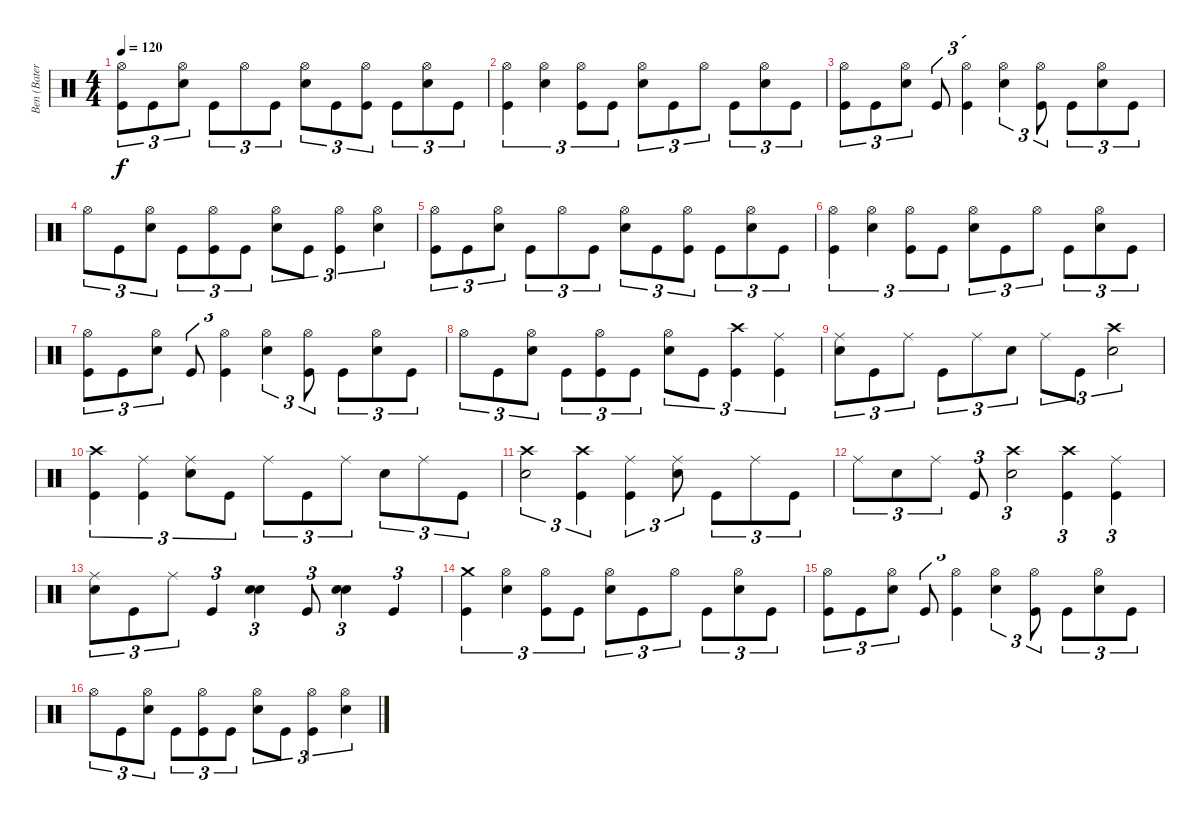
\track ("Ben (Bateria)" "Ben (Bater") {instrument percussion}
\staff {score}
\articulation defaults
\ts (4 4)
\tempo 120
\clef neutral
\ks c
("Kick (hit)" "Hi-Hat (open)").8{tu (3 2) dy f} "Kick (hit)".8{tu (3 2)} ("Snare (hit) 2" "Hi-Hat (open)").8{tu (3 2)} "Kick (hit)".8{tu (3 2)} "Hi-Hat (open)".8{tu (3 2)} "Kick (hit)".8{tu (3 2)} ("Snare (hit) 2" "Hi-Hat (open)").8{tu (3 2)} "Kick (hit)".8{tu (3 2)} ("Kick (hit)" "Hi-Hat (open)").8{tu (3 2)} "Kick (hit)".8{tu (3 2)} ("Snare (hit) 2" "Hi-Hat (open)").8{tu (3 2)} "Kick (hit)".8{tu (3 2)} |
("Kick (hit)" "Hi-Hat (open)").4{tu (3 2)} ("Snare (hit) 2" "Hi-Hat (open)").4{tu (3 2)} ("Kick (hit)" "Hi-Hat (open)").8{tu (3 2)} "Kick (hit)".8{tu (3 2)} ("Snare (hit) 2" "Hi-Hat (open)").8{tu (3 2)} "Kick (hit)".8{tu (3 2)} "Hi-Hat (open)".8{tu (3 2)} "Kick (hit)".8{tu (3 2)} ("Snare (hit) 2" "Hi-Hat (open)").8{tu (3 2)} "Kick (hit)".8{tu (3 2)} |
("Kick (hit)" "Hi-Hat (open)").8{tu (3 2)} "Kick (hit)".8{tu (3 2)} ("Snare (hit) 2" "Hi-Hat (open)").8{tu (3 2)} "Kick (hit)".8{tu (3 2)} ("Kick (hit)" "Hi-Hat (open)").4{tu (3 2)} ("Snare (hit) 2" "Hi-Hat (open)").4{tu (3 2)} ("Kick (hit)" "Hi-Hat (open)").8{tu (3 2)} "Kick (hit)".8{tu (3 2)} ("Snare (hit) 2" "Hi-Hat (open)").8{tu (3 2)} "Kick (hit)".8{tu (3 2)} |
"Hi-Hat (open)".8{tu (3 2)} "Kick (hit)".8{tu (3 2)} ("Snare (hit) 2" "Hi-Hat (open)").8{tu (3 2)} "Kick (hit)".8{tu (3 2)} ("Kick (hit)" "Hi-Hat (open)").8{tu (3 2)} "Kick (hit)".8{tu (3 2)} ("Snare (hit) 2" "Hi-Hat (open)").8{tu (3 2)} "Kick (hit)".8{tu (3 2)} ("Kick (hit)" "Hi-Hat (open)").4{tu (3 2)} ("Snare (hit) 2" "Hi-Hat (open)").4{tu (3 2)} |
("Kick (hit)" "Hi-Hat (open)").8{tu (3 2)} "Kick (hit)".8{tu (3 2)} ("Snare (hit) 2" "Hi-Hat (open)").8{tu (3 2)} "Kick (hit)".8{tu (3 2)} "Hi-Hat (open)".8{tu (3 2)} "Kick (hit)".8{tu (3 2)} ("Snare (hit) 2" "Hi-Hat (open)").8{tu (3 2)} "Kick (hit)".8{tu (3 2)} ("Kick (hit)" "Hi-Hat (open)").8{tu (3 2)} "Kick (hit)".8{tu (3 2)} ("Snare (hit) 2" "Hi-Hat (open)").8{tu (3 2)} "Kick (hit)".8{tu (3 2)} |
("Kick (hit)" "Hi-Hat (open)").4{tu (3 2)} ("Snare (hit) 2" "Hi-Hat (open)").4{tu (3 2)} ("Kick (hit)" "Hi-Hat (open)").8{tu (3 2)} "Kick (hit)".8{tu (3 2)} ("Snare (hit) 2" "Hi-Hat (open)").8{tu (3 2)} "Kick (hit)".8{tu (3 2)} "Hi-Hat (open)".8{tu (3 2)} "Kick (hit)".8{tu (3 2)} ("Snare (hit) 2" "Hi-Hat (open)").8{tu (3 2)} "Kick (hit)".8{tu (3 2)} |
("Kick (hit)" "Hi-Hat (open)").8{tu (3 2)} "Kick (hit)".8{tu (3 2)} ("Snare (hit) 2" "Hi-Hat (open)").8{tu (3 2)} "Kick (hit)".8{tu (3 2)} ("Kick (hit)" "Hi-Hat (open)").4{tu (3 2)} ("Snare (hit) 2" "Hi-Hat (open)").4{tu (3 2)} ("Kick (hit)" "Hi-Hat (open)").8{tu (3 2)} "Kick (hit)".8{tu (3 2)} ("Snare (hit) 2" "Hi-Hat (open)").8{tu (3 2)} "Kick (hit)".8{tu (3 2)} |
"Hi-Hat (open)".8{tu (3 2)} "Kick (hit)".8{tu (3 2)} ("Snare (hit) 2" "Hi-Hat (open)").8{tu (3 2)} "Kick (hit)".8{tu (3 2)} ("Kick (hit)" "Hi-Hat (open)").8{tu (3 2)} "Kick (hit)".8{tu (3 2)} ("Snare (hit) 2" "Hi-Hat (open)").8{tu (3 2)} "Kick (hit)".8{tu (3 2)} ("Kick (hit)" "Crash high (hit)").4{tu (3 2)} ("Kick (hit)" "Ride (middle)").4{tu (3 2)} |
("Snare (hit) 2" "Ride (middle)").8{tu (3 2)} "Kick (hit)".8{tu (3 2)} "Ride (middle)".8{tu (3 2)} "Kick (hit)".8{tu (3 2)} "Ride (middle)".8{tu (3 2)} "Snare (hit) 2".8{tu (3 2)} "Ride (middle)".8{tu (3 2)} "Kick (hit)".8{tu (3 2)} ("Snare (hit) 2" "Crash high (hit)").2{tu (3 2)} |
("Kick (hit)" "Crash high (hit)").4{tu (3 2)} ("Kick (hit)" "Ride (middle)").4{tu (3 2)} ("Snare (hit) 2" "Ride (middle)").8{tu (3 2)} "Kick (hit)".8{tu (3 2)} "Ride (middle)".8{tu (3 2)} "Kick (hit)".8{tu (3 2)} "Ride (middle)".8{tu (3 2)} "Snare (hit) 2".8{tu (3 2)} "Ride (middle)".8{tu (3 2)} "Kick (hit)".8{tu (3 2)} |
("Snare (hit) 2" "Crash high (hit)").2{tu (3 2)} ("Kick (hit)" "Crash high (hit)").4{tu (3 2)} ("Kick (hit)" "Ride (middle)").4{tu (3 2)} ("Snare (hit) 2" "Ride (middle)").8{tu (3 2)} "Kick (hit)".8{tu (3 2)} "Ride (middle)".8{tu (3 2)} "Kick (hit)".8{tu (3 2)} |
"Ride (middle)".8{tu (3 2)} "Snare (hit) 2".8{tu (3 2)} "Ride (middle)".8{tu (3 2)} "Kick (hit)".8{tu (3 2)} ("Snare (hit) 2" "Crash high (hit)").2{tu (3 2)} ("Kick (hit)" "Crash high (hit)").4{tu (3 2)} ("Kick (hit)" "Ride (middle)").4{tu (3 2)} |
("Snare (hit) 2" "Ride (middle)").8{tu (3 2)} "Kick (hit)".8{tu (3 2)} "Ride (middle)".8{tu (3 2)} "Kick (hit)".4{tu (3 2)} ("Snare (hit) 2" "Snare (hit) 2").4{tu (3 2) bu 60} "Kick (hit)".8{tu (3 2)} ("Snare (hit) 2" "Snare (hit) 2").4{tu (3 2) bu 60} "Kick (hit)".4{tu (3 2)} |
("Kick (hit)" "Crash medium (hit)").4{tu (3 2)} ("Snare (hit) 2" "Hi-Hat (open)").4{tu (3 2)} ("Kick (hit)" "Hi-Hat (open)").8{tu (3 2)} "Kick (hit)".8{tu (3 2)} ("Snare (hit) 2" "Hi-Hat (open)").8{tu (3 2)} "Kick (hit)".8{tu (3 2)} "Hi-Hat (open)".8{tu (3 2)} "Kick (hit)".8{tu (3 2)} ("Snare (hit) 2" "Hi-Hat (open)").8{tu (3 2)} "Kick (hit)".8{tu (3 2)} |
("Kick (hit)" "Hi-Hat (open)").8{tu (3 2)} "Kick (hit)".8{tu (3 2)} ("Snare (hit) 2" "Hi-Hat (open)").8{tu (3 2)} "Kick (hit)".8{tu (3 2)} ("Kick (hit)" "Hi-Hat (open)").4{tu (3 2)} ("Snare (hit) 2" "Hi-Hat (open)").4{tu (3 2)} ("Kick (hit)" "Hi-Hat (open)").8{tu (3 2)} "Kick (hit)".8{tu (3 2)} ("Snare (hit) 2" "Hi-Hat (open)").8{tu (3 2)} "Kick (hit)".8{tu (3 2)} |
"Hi-Hat (open)".8{tu (3 2)} "Kick (hit)".8{tu (3 2)} ("Snare (hit) 2" "Hi-Hat (open)").8{tu (3 2)} "Kick (hit)".8{tu (3 2)} ("Kick (hit)" "Hi-Hat (open)").8{tu (3 2)} "Kick (hit)".8{tu (3 2)} ("Snare (hit) 2" "Hi-Hat (open)").8{tu (3 2)} "Kick (hit)".8{tu (3 2)} ("Kick (hit)" "Hi-Hat (open)").4{tu (3 2)} ("Snare (hit) 2" "Hi-Hat (open)").4{tu (3 2)}
